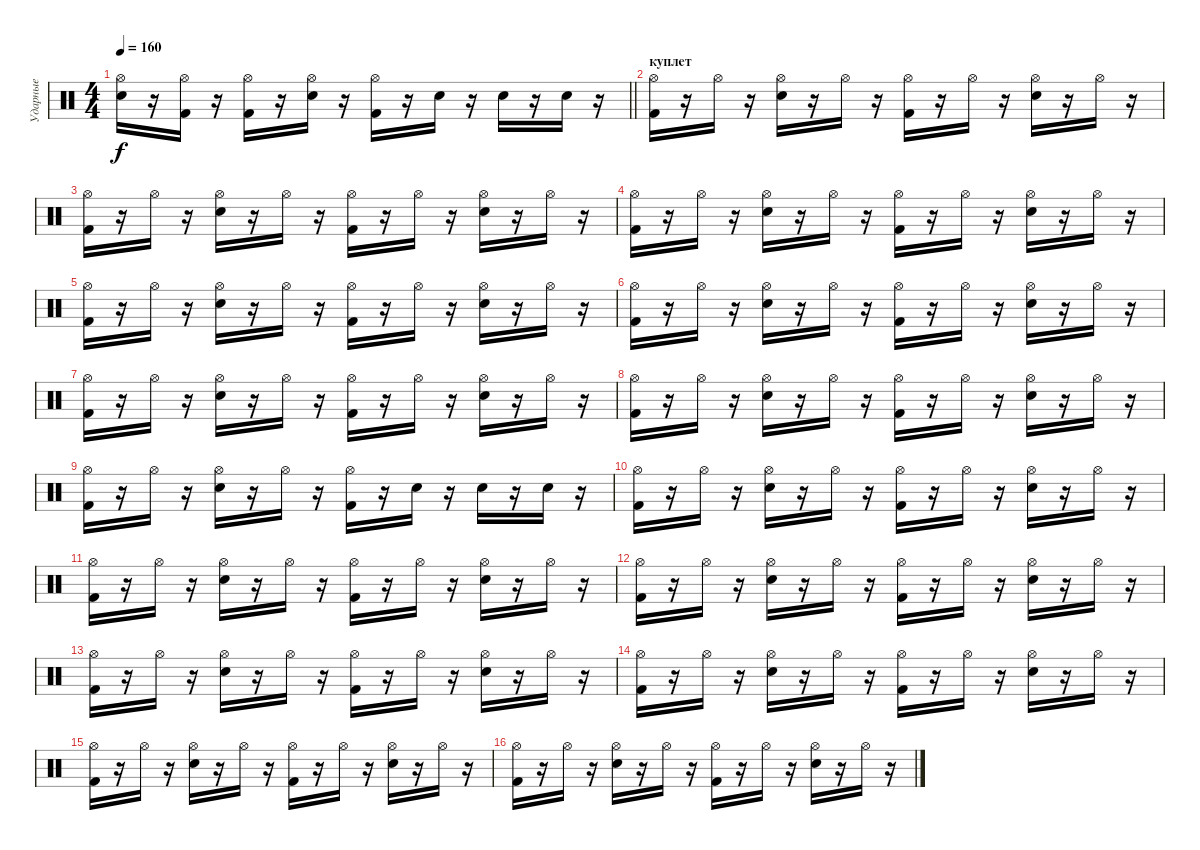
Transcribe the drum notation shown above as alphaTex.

\track ("Ударные" "Ударные") {instrument percussion}
\staff {score}
\articulation defaults
\ts (4 4)
\tempo 160
\clef neutral
\barLineRight lightlight
\ks c
("Hi-Hat (open)" "Electric Snare (hit)").16{dy f} r.16 ("Hi-Hat (open)" "Kick (hit) 2").16 r.16 ("Hi-Hat (open)" "Kick (hit) 2").16 r.16 ("Hi-Hat (open)" "Electric Snare (hit)").16 r.16 ("Hi-Hat (open)" "Kick (hit) 2").16 r.16 "Electric Snare (hit)".16 r.16 "Electric Snare (hit)".16 r.16 "Electric Snare (hit)".16 r.16 |
\section ("" "куплет")
("Hi-Hat (open)" "Kick (hit) 2").16 r.16 "Hi-Hat (open)".16 r.16 ("Hi-Hat (open)" "Electric Snare (hit)").16 r.16 "Hi-Hat (open)".16 r.16 ("Hi-Hat (open)" "Kick (hit) 2").16 r.16 "Hi-Hat (open)".16 r.16 ("Hi-Hat (open)" "Electric Snare (hit)").16 r.16 "Hi-Hat (open)".16 r.16 |
("Hi-Hat (open)" "Kick (hit) 2").16 r.16 "Hi-Hat (open)".16 r.16 ("Hi-Hat (open)" "Electric Snare (hit)").16 r.16 "Hi-Hat (open)".16 r.16 ("Hi-Hat (open)" "Kick (hit) 2").16 r.16 "Hi-Hat (open)".16 r.16 ("Hi-Hat (open)" "Electric Snare (hit)").16 r.16 "Hi-Hat (open)".16 r.16 |
("Hi-Hat (open)" "Kick (hit) 2").16 r.16 "Hi-Hat (open)".16 r.16 ("Hi-Hat (open)" "Electric Snare (hit)").16 r.16 "Hi-Hat (open)".16 r.16 ("Hi-Hat (open)" "Kick (hit) 2").16 r.16 "Hi-Hat (open)".16 r.16 ("Hi-Hat (open)" "Electric Snare (hit)").16 r.16 "Hi-Hat (open)".16 r.16 |
("Hi-Hat (open)" "Kick (hit) 2").16 r.16 "Hi-Hat (open)".16 r.16 ("Hi-Hat (open)" "Electric Snare (hit)").16 r.16 "Hi-Hat (open)".16 r.16 ("Hi-Hat (open)" "Kick (hit) 2").16 r.16 "Hi-Hat (open)".16 r.16 ("Hi-Hat (open)" "Electric Snare (hit)").16 r.16 "Hi-Hat (open)".16 r.16 |
("Hi-Hat (open)" "Kick (hit) 2").16 r.16 "Hi-Hat (open)".16 r.16 ("Hi-Hat (open)" "Electric Snare (hit)").16 r.16 "Hi-Hat (open)".16 r.16 ("Hi-Hat (open)" "Kick (hit) 2").16 r.16 "Hi-Hat (open)".16 r.16 ("Hi-Hat (open)" "Electric Snare (hit)").16 r.16 "Hi-Hat (open)".16 r.16 |
("Hi-Hat (open)" "Kick (hit) 2").16 r.16 "Hi-Hat (open)".16 r.16 ("Hi-Hat (open)" "Electric Snare (hit)").16 r.16 "Hi-Hat (open)".16 r.16 ("Hi-Hat (open)" "Kick (hit) 2").16 r.16 "Hi-Hat (open)".16 r.16 ("Hi-Hat (open)" "Electric Snare (hit)").16 r.16 "Hi-Hat (open)".16 r.16 |
("Hi-Hat (open)" "Kick (hit) 2").16 r.16 "Hi-Hat (open)".16 r.16 ("Hi-Hat (open)" "Electric Snare (hit)").16 r.16 "Hi-Hat (open)".16 r.16 ("Hi-Hat (open)" "Kick (hit) 2").16 r.16 "Hi-Hat (open)".16 r.16 ("Hi-Hat (open)" "Electric Snare (hit)").16 r.16 "Hi-Hat (open)".16 r.16 |
("Hi-Hat (open)" "Kick (hit) 2").16 r.16 "Hi-Hat (open)".16 r.16 ("Hi-Hat (open)" "Electric Snare (hit)").16 r.16 "Hi-Hat (open)".16 r.16 ("Hi-Hat (open)" "Kick (hit) 2").16 r.16 "Electric Snare (hit)".16 r.16 "Electric Snare (hit)".16 r.16 "Electric Snare (hit)".16 r.16 |
("Hi-Hat (open)" "Kick (hit) 2").16 r.16 "Hi-Hat (open)".16 r.16 ("Hi-Hat (open)" "Electric Snare (hit)").16 r.16 "Hi-Hat (open)".16 r.16 ("Hi-Hat (open)" "Kick (hit) 2").16 r.16 "Hi-Hat (open)".16 r.16 ("Hi-Hat (open)" "Electric Snare (hit)").16 r.16 "Hi-Hat (open)".16 r.16 |
("Hi-Hat (open)" "Kick (hit) 2").16 r.16 "Hi-Hat (open)".16 r.16 ("Hi-Hat (open)" "Electric Snare (hit)").16 r.16 "Hi-Hat (open)".16 r.16 ("Hi-Hat (open)" "Kick (hit) 2").16 r.16 "Hi-Hat (open)".16 r.16 ("Hi-Hat (open)" "Electric Snare (hit)").16 r.16 "Hi-Hat (open)".16 r.16 |
("Hi-Hat (open)" "Kick (hit) 2").16 r.16 "Hi-Hat (open)".16 r.16 ("Hi-Hat (open)" "Electric Snare (hit)").16 r.16 "Hi-Hat (open)".16 r.16 ("Hi-Hat (open)" "Kick (hit) 2").16 r.16 "Hi-Hat (open)".16 r.16 ("Hi-Hat (open)" "Electric Snare (hit)").16 r.16 "Hi-Hat (open)".16 r.16 |
("Hi-Hat (open)" "Kick (hit) 2").16 r.16 "Hi-Hat (open)".16 r.16 ("Hi-Hat (open)" "Electric Snare (hit)").16 r.16 "Hi-Hat (open)".16 r.16 ("Hi-Hat (open)" "Kick (hit) 2").16 r.16 "Hi-Hat (open)".16 r.16 ("Hi-Hat (open)" "Electric Snare (hit)").16 r.16 "Hi-Hat (open)".16 r.16 |
("Hi-Hat (open)" "Kick (hit) 2").16 r.16 "Hi-Hat (open)".16 r.16 ("Hi-Hat (open)" "Electric Snare (hit)").16 r.16 "Hi-Hat (open)".16 r.16 ("Hi-Hat (open)" "Kick (hit) 2").16 r.16 "Hi-Hat (open)".16 r.16 ("Hi-Hat (open)" "Electric Snare (hit)").16 r.16 "Hi-Hat (open)".16 r.16 |
("Hi-Hat (open)" "Kick (hit) 2").16 r.16 "Hi-Hat (open)".16 r.16 ("Hi-Hat (open)" "Electric Snare (hit)").16 r.16 "Hi-Hat (open)".16 r.16 ("Hi-Hat (open)" "Kick (hit) 2").16 r.16 "Hi-Hat (open)".16 r.16 ("Hi-Hat (open)" "Electric Snare (hit)").16 r.16 "Hi-Hat (open)".16 r.16 |
("Hi-Hat (open)" "Kick (hit) 2").16 r.16 "Hi-Hat (open)".16 r.16 ("Hi-Hat (open)" "Electric Snare (hit)").16 r.16 "Hi-Hat (open)".16 r.16 ("Hi-Hat (open)" "Kick (hit) 2").16 r.16 "Hi-Hat (open)".16 r.16 ("Hi-Hat (open)" "Electric Snare (hit)").16 r.16 "Hi-Hat (open)".16 r.16
